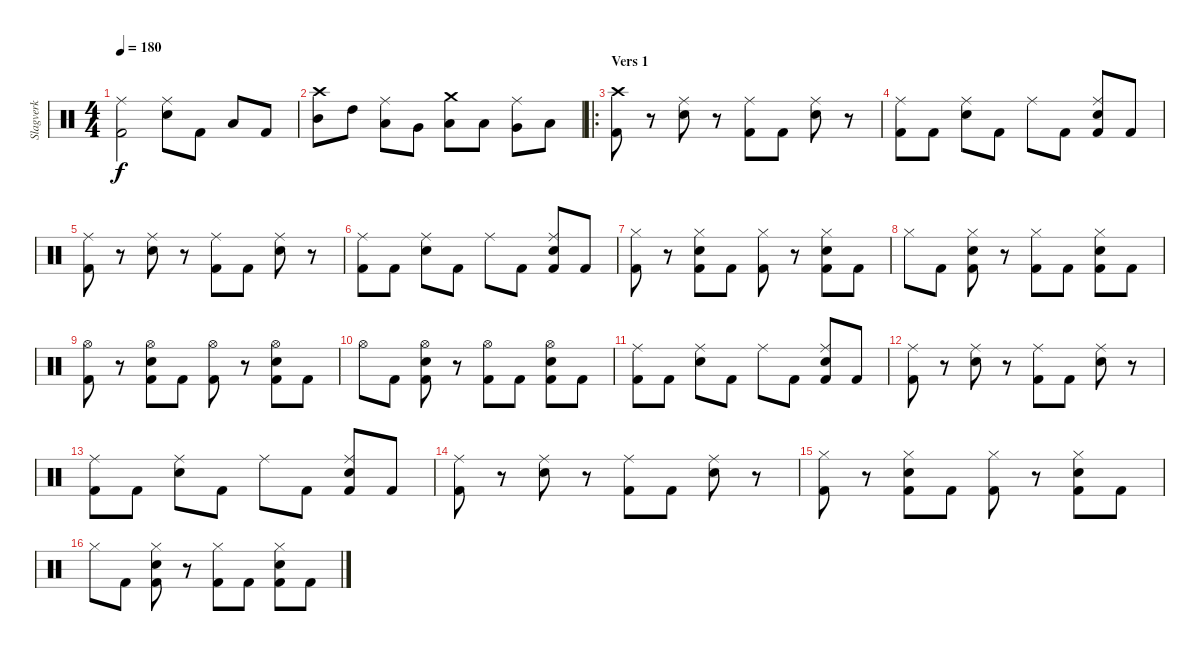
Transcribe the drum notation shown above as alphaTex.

\track ("Slagverk" "Slagverk") {instrument percussion}
\staff {score}
\articulation defaults
\ts (4 4)
\tempo 180
\clef neutral
\ks c
("Kick (hit) 2" "Ride (middle)").2{dy f} ("Snare (hit) 2" "Ride (middle)").8 "Kick (hit) 2".8 "Low Floor Tom (hit)".8 "Kick (hit) 2".8 |
("Mid Tom (hit)" "Crash high (hit)").8 "High Tom (hit)".8 ("Low Tom (hit)" "Ride (middle)").8 "Very Low Tom (hit)".8 ("Low Floor Tom (hit)" "Crash medium (hit)").8 "Low Tom (hit)".8 ("Very Low Tom (hit)" "Ride (middle)").8 "Low Floor Tom (hit)".8 |
\ro
\section ("" "Vers 1")
("Kick (hit) 2" "Crash high (hit)").8 r.8 ("Snare (hit) 2" "Ride (middle)").8 r.8 ("Kick (hit) 2" "Ride (middle)").8 "Kick (hit) 2".8 ("Snare (hit) 2" "Ride (middle)").8 r.8 |
("Kick (hit) 2" "Ride (middle)").8 "Kick (hit) 2".8 ("Snare (hit) 2" "Ride (middle)").8 "Kick (hit) 2".8 "Ride (middle)".8 "Kick (hit) 2".8 ("Kick (hit) 2" "Snare (hit) 2" "Ride (middle)").8 "Kick (hit) 2".8 |
("Kick (hit) 2" "Ride (middle)").8 r.8 ("Snare (hit) 2" "Ride (middle)").8 r.8 ("Kick (hit) 2" "Ride (middle)").8 "Kick (hit) 2".8 ("Snare (hit) 2" "Ride (middle)").8 r.8 |
("Kick (hit) 2" "Ride (middle)").8 "Kick (hit) 2".8 ("Snare (hit) 2" "Ride (middle)").8 "Kick (hit) 2".8 "Ride (middle)".8 "Kick (hit) 2".8 ("Kick (hit) 2" "Snare (hit) 2" "Ride (middle)").8 "Kick (hit) 2".8 |
("Kick (hit) 2" "Hi-Hat (closed)").8 r.8 ("Kick (hit) 2" "Snare (hit) 2" "Hi-Hat (closed)").8 "Kick (hit) 2".8 ("Kick (hit) 2" "Hi-Hat (closed)").8 r.8 ("Kick (hit) 2" "Snare (hit) 2" "Hi-Hat (closed)").8 "Kick (hit) 2".8 |
"Hi-Hat (closed)".8 "Kick (hit) 2".8 ("Kick (hit) 2" "Snare (hit) 2" "Hi-Hat (closed)").8 r.8 ("Kick (hit) 2" "Hi-Hat (closed)").8 "Kick (hit) 2".8 ("Kick (hit) 2" "Snare (hit) 2" "Hi-Hat (closed)").8 "Kick (hit) 2".8 |
("Kick (hit) 2" "Hi-Hat (open)").8 r.8 ("Kick (hit) 2" "Snare (hit) 2" "Hi-Hat (open)").8 "Kick (hit) 2".8 ("Kick (hit) 2" "Hi-Hat (open)").8 r.8 ("Kick (hit) 2" "Snare (hit) 2" "Hi-Hat (open)").8 "Kick (hit) 2".8 |
"Hi-Hat (open)".8 "Kick (hit) 2".8 ("Kick (hit) 2" "Snare (hit) 2" "Hi-Hat (open)").8 r.8 ("Kick (hit) 2" "Hi-Hat (open)").8 "Kick (hit) 2".8 ("Kick (hit) 2" "Snare (hit) 2" "Hi-Hat (open)").8 "Kick (hit) 2".8 |
("Kick (hit) 2" "Ride (middle)").8 "Kick (hit) 2".8 ("Snare (hit) 2" "Ride (middle)").8 "Kick (hit) 2".8 "Ride (middle)".8 "Kick (hit) 2".8 ("Kick (hit) 2" "Snare (hit) 2" "Ride (middle)").8 "Kick (hit) 2".8 |
("Kick (hit) 2" "Ride (middle)").8 r.8 ("Snare (hit) 2" "Ride (middle)").8 r.8 ("Kick (hit) 2" "Ride (middle)").8 "Kick (hit) 2".8 ("Snare (hit) 2" "Ride (middle)").8 r.8 |
("Kick (hit) 2" "Ride (middle)").8 "Kick (hit) 2".8 ("Snare (hit) 2" "Ride (middle)").8 "Kick (hit) 2".8 "Ride (middle)".8 "Kick (hit) 2".8 ("Kick (hit) 2" "Snare (hit) 2" "Ride (middle)").8 "Kick (hit) 2".8 |
("Kick (hit) 2" "Ride (middle)").8 r.8 ("Snare (hit) 2" "Ride (middle)").8 r.8 ("Kick (hit) 2" "Ride (middle)").8 "Kick (hit) 2".8 ("Snare (hit) 2" "Ride (middle)").8 r.8 |
("Kick (hit) 2" "Hi-Hat (closed)").8 r.8 ("Kick (hit) 2" "Snare (hit) 2" "Hi-Hat (closed)").8 "Kick (hit) 2".8 ("Kick (hit) 2" "Hi-Hat (closed)").8 r.8 ("Kick (hit) 2" "Snare (hit) 2" "Hi-Hat (closed)").8 "Kick (hit) 2".8 |
"Hi-Hat (closed)".8 "Kick (hit) 2".8 ("Kick (hit) 2" "Snare (hit) 2" "Hi-Hat (closed)").8 r.8 ("Kick (hit) 2" "Hi-Hat (closed)").8 "Kick (hit) 2".8 ("Kick (hit) 2" "Snare (hit) 2" "Hi-Hat (closed)").8 "Kick (hit) 2".8
